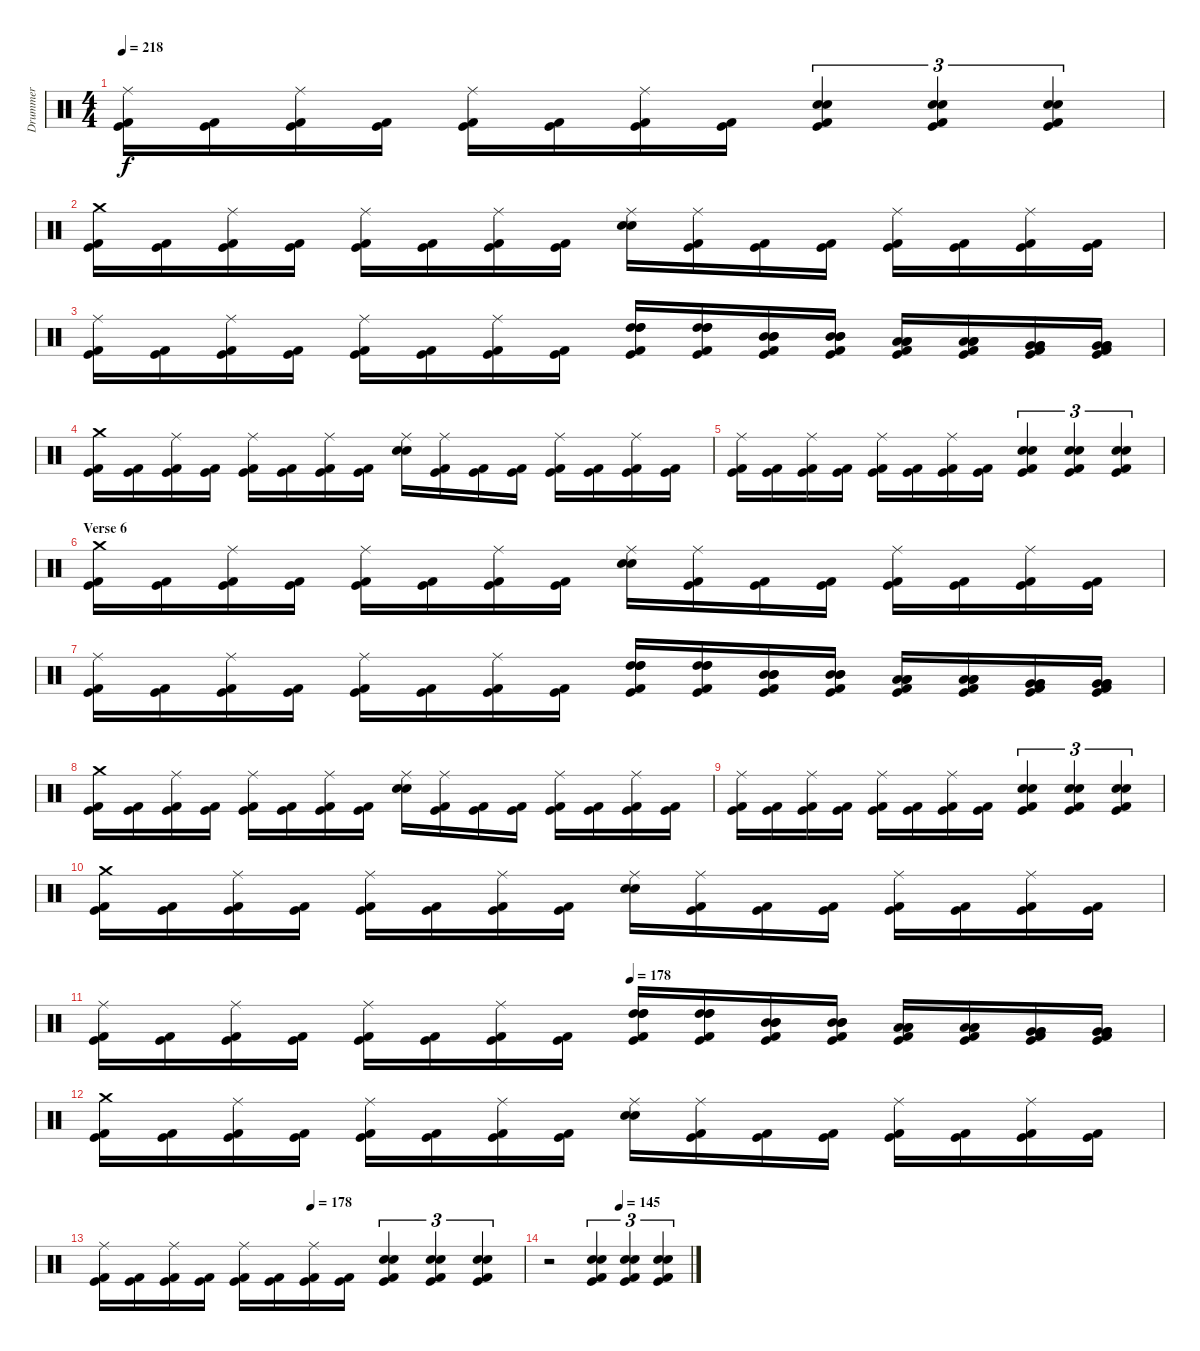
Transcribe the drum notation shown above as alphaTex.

\track ("Drummer" "Drummer") {instrument percussion}
\staff {score}
\articulation defaults
\ts (4 4)
\tempo 218
\clef neutral
\ks c
("Ride (middle)" "Kick (hit)" "Kick (hit) 2").16{dy f} ("Kick (hit)" "Kick (hit) 2").16 ("Ride (middle)" "Kick (hit)" "Kick (hit) 2").16 ("Kick (hit)" "Kick (hit) 2").16 ("Ride (middle)" "Kick (hit)" "Kick (hit) 2").16 ("Kick (hit)" "Kick (hit) 2").16 ("Ride (middle)" "Kick (hit)" "Kick (hit) 2").16 ("Kick (hit)" "Kick (hit) 2").16 ("Electric Snare (hit)" "Snare (hit) 2" "Kick (hit) 2" "Kick (hit)").4{tu (3 2)} ("Electric Snare (hit)" "Snare (hit) 2" "Kick (hit)" "Kick (hit) 2").4{tu (3 2)} ("Electric Snare (hit)" "Snare (hit) 2" "Kick (hit)" "Kick (hit) 2").4{tu (3 2)} |
("Crash medium (hit)" "Kick (hit)" "Kick (hit) 2").16 ("Kick (hit)" "Kick (hit) 2").16 ("Ride (middle)" "Kick (hit)" "Kick (hit) 2").16 ("Kick (hit)" "Kick (hit) 2").16 ("Ride (middle)" "Kick (hit)" "Kick (hit) 2").16 ("Kick (hit)" "Kick (hit) 2").16 ("Ride (middle)" "Kick (hit)" "Kick (hit) 2").16 ("Kick (hit)" "Kick (hit) 2").16 ("Ride (middle)" "Snare (hit) 2" "Electric Snare (hit)").16 ("Ride (middle)" "Kick (hit)" "Kick (hit) 2").16 ("Kick (hit)" "Kick (hit) 2").16 ("Kick (hit)" "Kick (hit) 2").16 ("Ride (middle)" "Kick (hit)" "Kick (hit) 2").16 ("Kick (hit)" "Kick (hit) 2").16 ("Ride (middle)" "Kick (hit)" "Kick (hit) 2").16 ("Kick (hit)" "Kick (hit) 2").16 |
("Ride (middle)" "Kick (hit)" "Kick (hit) 2").16 ("Kick (hit)" "Kick (hit) 2").16 ("Ride (middle)" "Kick (hit)" "Kick (hit) 2").16 ("Kick (hit)" "Kick (hit) 2").16 ("Ride (middle)" "Kick (hit)" "Kick (hit) 2").16 ("Kick (hit)" "Kick (hit) 2").16 ("Ride (middle)" "Kick (hit)" "Kick (hit) 2").16 ("Kick (hit)" "Kick (hit) 2").16 ("High Tom (hit)" "High Tom (hit)" "High Tom (hit)" "Kick (hit)" "Kick (hit) 2").16 ("High Tom (hit)" "High Tom (hit)" "High Tom (hit)" "Kick (hit)" "Kick (hit) 2").16 ("Mid Tom (hit)" "Mid Tom (hit)" "Mid Tom (hit)" "Kick (hit)" "Kick (hit) 2").16 ("Mid Tom (hit)" "Mid Tom (hit)" "Mid Tom (hit)" "Kick (hit)" "Kick (hit) 2").16 ("Low Tom (hit)" "Low Tom (hit)" "Low Tom (hit)" "Kick (hit)" "Kick (hit) 2").16 ("Low Tom (hit)" "Low Tom (hit)" "Low Tom (hit)" "Kick (hit)" "Kick (hit) 2").16 ("Very Low Tom (hit)" "Very Low Tom (hit)" "Very Low Tom (hit)" "Kick (hit)" "Kick (hit) 2").16 ("Very Low Tom (hit)" "Very Low Tom (hit)" "Very Low Tom (hit)" "Kick (hit)" "Kick (hit) 2").16 |
("Crash medium (hit)" "Kick (hit)" "Kick (hit) 2").16 ("Kick (hit)" "Kick (hit) 2").16 ("Ride (middle)" "Kick (hit)" "Kick (hit) 2").16 ("Kick (hit)" "Kick (hit) 2").16 ("Ride (middle)" "Kick (hit)" "Kick (hit) 2").16 ("Kick (hit)" "Kick (hit) 2").16 ("Ride (middle)" "Kick (hit)" "Kick (hit) 2").16 ("Kick (hit)" "Kick (hit) 2").16 ("Ride (middle)" "Snare (hit) 2" "Electric Snare (hit)").16 ("Ride (middle)" "Kick (hit)" "Kick (hit) 2").16 ("Kick (hit)" "Kick (hit) 2").16 ("Kick (hit)" "Kick (hit) 2").16 ("Ride (middle)" "Kick (hit)" "Kick (hit) 2").16 ("Kick (hit)" "Kick (hit) 2").16 ("Ride (middle)" "Kick (hit)" "Kick (hit) 2").16 ("Kick (hit)" "Kick (hit) 2").16 |
("Ride (middle)" "Kick (hit)" "Kick (hit) 2").16 ("Kick (hit)" "Kick (hit) 2").16 ("Ride (middle)" "Kick (hit)" "Kick (hit) 2").16 ("Kick (hit)" "Kick (hit) 2").16 ("Ride (middle)" "Kick (hit)" "Kick (hit) 2").16 ("Kick (hit)" "Kick (hit) 2").16 ("Ride (middle)" "Kick (hit)" "Kick (hit) 2").16 ("Kick (hit)" "Kick (hit) 2").16 ("Electric Snare (hit)" "Snare (hit) 2" "Kick (hit) 2" "Kick (hit)").4{tu (3 2)} ("Electric Snare (hit)" "Snare (hit) 2" "Kick (hit)" "Kick (hit) 2").4{tu (3 2)} ("Electric Snare (hit)" "Snare (hit) 2" "Kick (hit)" "Kick (hit) 2").4{tu (3 2)} |
\section ("" "Verse 6")
("Crash medium (hit)" "Kick (hit)" "Kick (hit) 2").16 ("Kick (hit)" "Kick (hit) 2").16 ("Ride (middle)" "Kick (hit)" "Kick (hit) 2").16 ("Kick (hit)" "Kick (hit) 2").16 ("Ride (middle)" "Kick (hit)" "Kick (hit) 2").16 ("Kick (hit)" "Kick (hit) 2").16 ("Ride (middle)" "Kick (hit)" "Kick (hit) 2").16 ("Kick (hit)" "Kick (hit) 2").16 ("Ride (middle)" "Snare (hit) 2" "Electric Snare (hit)").16 ("Ride (middle)" "Kick (hit)" "Kick (hit) 2").16 ("Kick (hit)" "Kick (hit) 2").16 ("Kick (hit)" "Kick (hit) 2").16 ("Ride (middle)" "Kick (hit)" "Kick (hit) 2").16 ("Kick (hit)" "Kick (hit) 2").16 ("Ride (middle)" "Kick (hit)" "Kick (hit) 2").16 ("Kick (hit)" "Kick (hit) 2").16 |
("Ride (middle)" "Kick (hit)" "Kick (hit) 2").16 ("Kick (hit)" "Kick (hit) 2").16 ("Ride (middle)" "Kick (hit)" "Kick (hit) 2").16 ("Kick (hit)" "Kick (hit) 2").16 ("Ride (middle)" "Kick (hit)" "Kick (hit) 2").16 ("Kick (hit)" "Kick (hit) 2").16 ("Ride (middle)" "Kick (hit)" "Kick (hit) 2").16 ("Kick (hit)" "Kick (hit) 2").16 ("High Tom (hit)" "High Tom (hit)" "High Tom (hit)" "Kick (hit)" "Kick (hit) 2").16 ("High Tom (hit)" "High Tom (hit)" "High Tom (hit)" "Kick (hit)" "Kick (hit) 2").16 ("Mid Tom (hit)" "Mid Tom (hit)" "Mid Tom (hit)" "Kick (hit)" "Kick (hit) 2").16 ("Mid Tom (hit)" "Mid Tom (hit)" "Mid Tom (hit)" "Kick (hit)" "Kick (hit) 2").16 ("Low Tom (hit)" "Low Tom (hit)" "Low Tom (hit)" "Kick (hit)" "Kick (hit) 2").16 ("Low Tom (hit)" "Low Tom (hit)" "Low Tom (hit)" "Kick (hit)" "Kick (hit) 2").16 ("Very Low Tom (hit)" "Very Low Tom (hit)" "Very Low Tom (hit)" "Kick (hit)" "Kick (hit) 2").16 ("Very Low Tom (hit)" "Very Low Tom (hit)" "Very Low Tom (hit)" "Kick (hit)" "Kick (hit) 2").16 |
("Crash medium (hit)" "Kick (hit)" "Kick (hit) 2").16 ("Kick (hit)" "Kick (hit) 2").16 ("Ride (middle)" "Kick (hit)" "Kick (hit) 2").16 ("Kick (hit)" "Kick (hit) 2").16 ("Ride (middle)" "Kick (hit)" "Kick (hit) 2").16 ("Kick (hit)" "Kick (hit) 2").16 ("Ride (middle)" "Kick (hit)" "Kick (hit) 2").16 ("Kick (hit)" "Kick (hit) 2").16 ("Ride (middle)" "Snare (hit) 2" "Electric Snare (hit)").16 ("Ride (middle)" "Kick (hit)" "Kick (hit) 2").16 ("Kick (hit)" "Kick (hit) 2").16 ("Kick (hit)" "Kick (hit) 2").16 ("Ride (middle)" "Kick (hit)" "Kick (hit) 2").16 ("Kick (hit)" "Kick (hit) 2").16 ("Ride (middle)" "Kick (hit)" "Kick (hit) 2").16 ("Kick (hit)" "Kick (hit) 2").16 |
("Ride (middle)" "Kick (hit)" "Kick (hit) 2").16 ("Kick (hit)" "Kick (hit) 2").16 ("Ride (middle)" "Kick (hit)" "Kick (hit) 2").16 ("Kick (hit)" "Kick (hit) 2").16 ("Ride (middle)" "Kick (hit)" "Kick (hit) 2").16 ("Kick (hit)" "Kick (hit) 2").16 ("Ride (middle)" "Kick (hit)" "Kick (hit) 2").16 ("Kick (hit)" "Kick (hit) 2").16 ("Electric Snare (hit)" "Snare (hit) 2" "Kick (hit) 2" "Kick (hit)").4{tu (3 2)} ("Electric Snare (hit)" "Snare (hit) 2" "Kick (hit)" "Kick (hit) 2").4{tu (3 2)} ("Electric Snare (hit)" "Snare (hit) 2" "Kick (hit)" "Kick (hit) 2").4{tu (3 2)} |
("Crash medium (hit)" "Kick (hit)" "Kick (hit) 2").16 ("Kick (hit)" "Kick (hit) 2").16 ("Ride (middle)" "Kick (hit)" "Kick (hit) 2").16 ("Kick (hit)" "Kick (hit) 2").16 ("Ride (middle)" "Kick (hit)" "Kick (hit) 2").16 ("Kick (hit)" "Kick (hit) 2").16 ("Ride (middle)" "Kick (hit)" "Kick (hit) 2").16 ("Kick (hit)" "Kick (hit) 2").16 ("Ride (middle)" "Snare (hit) 2" "Electric Snare (hit)").16 ("Ride (middle)" "Kick (hit)" "Kick (hit) 2").16 ("Kick (hit)" "Kick (hit) 2").16 ("Kick (hit)" "Kick (hit) 2").16 ("Ride (middle)" "Kick (hit)" "Kick (hit) 2").16 ("Kick (hit)" "Kick (hit) 2").16 ("Ride (middle)" "Kick (hit)" "Kick (hit) 2").16 ("Kick (hit)" "Kick (hit) 2").16 |
\tempo (178 0.5)
("Ride (middle)" "Kick (hit)" "Kick (hit) 2").16 ("Kick (hit)" "Kick (hit) 2").16 ("Ride (middle)" "Kick (hit)" "Kick (hit) 2").16 ("Kick (hit)" "Kick (hit) 2").16 ("Ride (middle)" "Kick (hit)" "Kick (hit) 2").16 ("Kick (hit)" "Kick (hit) 2").16 ("Ride (middle)" "Kick (hit)" "Kick (hit) 2").16 ("Kick (hit)" "Kick (hit) 2").16 ("High Tom (hit)" "High Tom (hit)" "High Tom (hit)" "Kick (hit)" "Kick (hit) 2").16 ("High Tom (hit)" "High Tom (hit)" "High Tom (hit)" "Kick (hit)" "Kick (hit) 2").16 ("Mid Tom (hit)" "Mid Tom (hit)" "Mid Tom (hit)" "Kick (hit)" "Kick (hit) 2").16 ("Mid Tom (hit)" "Mid Tom (hit)" "Mid Tom (hit)" "Kick (hit)" "Kick (hit) 2").16 ("Low Tom (hit)" "Low Tom (hit)" "Low Tom (hit)" "Kick (hit)" "Kick (hit) 2").16 ("Low Tom (hit)" "Low Tom (hit)" "Low Tom (hit)" "Kick (hit)" "Kick (hit) 2").16 ("Very Low Tom (hit)" "Very Low Tom (hit)" "Very Low Tom (hit)" "Kick (hit)" "Kick (hit) 2").16 ("Very Low Tom (hit)" "Very Low Tom (hit)" "Very Low Tom (hit)" "Kick (hit)" "Kick (hit) 2").16 |
("Crash medium (hit)" "Kick (hit)" "Kick (hit) 2").16 ("Kick (hit)" "Kick (hit) 2").16 ("Ride (middle)" "Kick (hit)" "Kick (hit) 2").16 ("Kick (hit)" "Kick (hit) 2").16 ("Ride (middle)" "Kick (hit)" "Kick (hit) 2").16 ("Kick (hit)" "Kick (hit) 2").16 ("Ride (middle)" "Kick (hit)" "Kick (hit) 2").16 ("Kick (hit)" "Kick (hit) 2").16 ("Ride (middle)" "Snare (hit) 2" "Electric Snare (hit)").16 ("Ride (middle)" "Kick (hit)" "Kick (hit) 2").16 ("Kick (hit)" "Kick (hit) 2").16 ("Kick (hit)" "Kick (hit) 2").16 ("Ride (middle)" "Kick (hit)" "Kick (hit) 2").16 ("Kick (hit)" "Kick (hit) 2").16 ("Ride (middle)" "Kick (hit)" "Kick (hit) 2").16 ("Kick (hit)" "Kick (hit) 2").16 |
\tempo (178 0.5)
("Ride (middle)" "Kick (hit)" "Kick (hit) 2").16 ("Kick (hit)" "Kick (hit) 2").16 ("Ride (middle)" "Kick (hit)" "Kick (hit) 2").16 ("Kick (hit)" "Kick (hit) 2").16 ("Ride (middle)" "Kick (hit)" "Kick (hit) 2").16 ("Kick (hit)" "Kick (hit) 2").16 ("Ride (middle)" "Kick (hit)" "Kick (hit) 2").16 ("Kick (hit)" "Kick (hit) 2").16 ("Electric Snare (hit)" "Snare (hit) 2" "Kick (hit) 2" "Kick (hit)").4{tu (3 2)} ("Electric Snare (hit)" "Snare (hit) 2" "Kick (hit)" "Kick (hit) 2").4{tu (3 2)} ("Electric Snare (hit)" "Snare (hit) 2" "Kick (hit)" "Kick (hit) 2").4{tu (3 2)} |
\tempo (145 0.5)
r.2 ("Electric Snare (hit)" "Snare (hit) 2" "Kick (hit)" "Kick (hit) 2").4{tu (3 2)} ("Electric Snare (hit)" "Snare (hit) 2" "Kick (hit) 2" "Kick (hit)").4{tu (3 2)} ("Electric Snare (hit)" "Kick (hit)" "Kick (hit) 2" "Snare (hit) 2").4{tu (3 2)}
